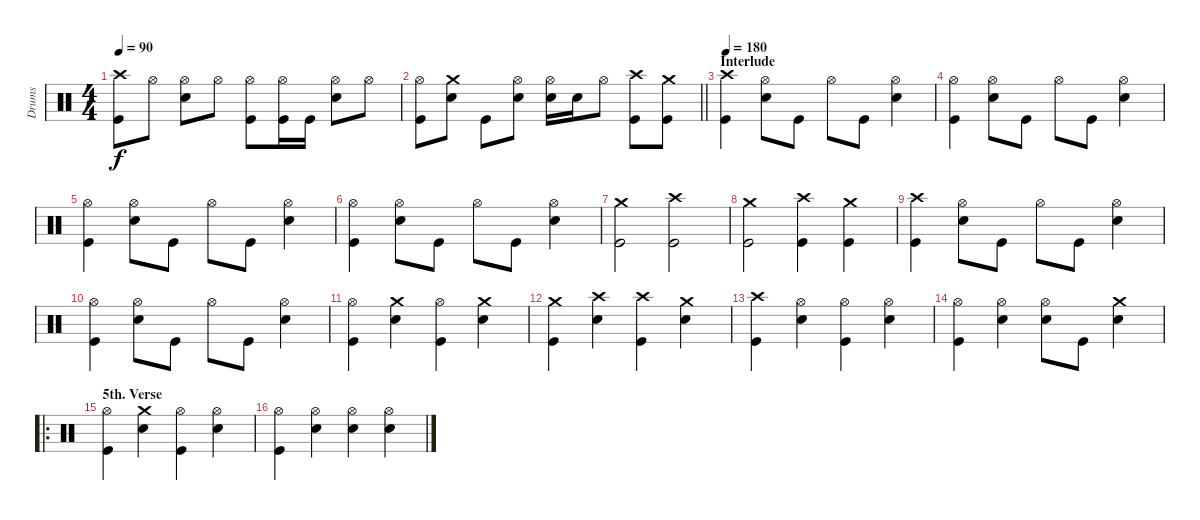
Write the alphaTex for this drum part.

\track ("Drums" "Drums") {instrument percussion}
\staff {score}
\articulation defaults
\ts (4 4)
\tempo 90
\clef neutral
\ks c
("Crash high (hit)" "Kick (hit)").8{dy f} "Hi-Hat (open)".8 ("Hi-Hat (open)" "Electric Snare (hit)").8 "Hi-Hat (open)".8 ("Hi-Hat (open)" "Kick (hit)").8 ("Hi-Hat (open)" "Kick (hit)").16 "Kick (hit)".16 ("Hi-Hat (open)" "Electric Snare (hit)").8 "Hi-Hat (open)".8 |
\barLineRight lightlight
("Hi-Hat (open)" "Kick (hit)").8 ("Crash medium (hit)" "Electric Snare (hit)").8 "Kick (hit)".8 ("Hi-Hat (open)" "Electric Snare (hit)").8 ("Hi-Hat (open)" "Electric Snare (hit)").16 "Electric Snare (hit)".16 "Hi-Hat (open)".8 ("Crash high (hit)" "Kick (hit)").8 ("Crash medium (hit)" "Kick (hit)").8 |
\section ("" "Interlude")
\tempo 180
("Crash high (hit)" "Kick (hit)").4 ("Hi-Hat (open)" "Electric Snare (hit)").8 "Kick (hit)".8 "Hi-Hat (open)".8 "Kick (hit)".8 ("Hi-Hat (open)" "Electric Snare (hit)").4 |
("Hi-Hat (open)" "Kick (hit)").4 ("Hi-Hat (open)" "Electric Snare (hit)").8 "Kick (hit)".8 "Hi-Hat (open)".8 "Kick (hit)".8 ("Hi-Hat (open)" "Electric Snare (hit)").4 |
("Hi-Hat (open)" "Kick (hit)").4 ("Hi-Hat (open)" "Electric Snare (hit)").8 "Kick (hit)".8 "Hi-Hat (open)".8 "Kick (hit)".8 ("Hi-Hat (open)" "Electric Snare (hit)").4 |
("Hi-Hat (open)" "Kick (hit)").4 ("Hi-Hat (open)" "Electric Snare (hit)").8 "Kick (hit)".8 "Hi-Hat (open)".8 "Kick (hit)".8 ("Hi-Hat (open)" "Electric Snare (hit)").4 |
("Crash medium (hit)" "Kick (hit)").2 ("Crash high (hit)" "Kick (hit)").2 |
("Crash medium (hit)" "Kick (hit)").2 ("Crash high (hit)" "Kick (hit)").4 ("Crash medium (hit)" "Kick (hit)").4 |
("Crash high (hit)" "Kick (hit)").4 ("Hi-Hat (open)" "Electric Snare (hit)").8 "Kick (hit)".8 "Hi-Hat (open)".8 "Kick (hit)".8 ("Hi-Hat (open)" "Electric Snare (hit)").4 |
("Hi-Hat (open)" "Kick (hit)").4 ("Hi-Hat (open)" "Electric Snare (hit)").8 "Kick (hit)".8 "Hi-Hat (open)".8 "Kick (hit)".8 ("Hi-Hat (open)" "Electric Snare (hit)").4 |
("Hi-Hat (open)" "Kick (hit)").4 ("Crash medium (hit)" "Electric Snare (hit)").4 ("Hi-Hat (open)" "Kick (hit)").4 ("Crash medium (hit)" "Electric Snare (hit)").4 |
("Crash medium (hit)" "Kick (hit)").4 ("Crash high (hit)" "Electric Snare (hit)").4 ("Crash high (hit)" "Kick (hit)").4 ("Crash medium (hit)" "Electric Snare (hit)").4 |
("Crash high (hit)" "Kick (hit)").4 ("Hi-Hat (open)" "Electric Snare (hit)").4 ("Hi-Hat (open)" "Kick (hit)").4 ("Hi-Hat (open)" "Electric Snare (hit)").4 |
("Hi-Hat (open)" "Kick (hit)").4 ("Hi-Hat (open)" "Electric Snare (hit)").4 ("Hi-Hat (open)" "Electric Snare (hit)").8 "Kick (hit)".8 ("Crash medium (hit)" "Electric Snare (hit)").4 |
\ro
\section ("" "5th. Verse")
("Hi-Hat (open)" "Kick (hit)").4 ("Crash medium (hit)" "Electric Snare (hit)").4 ("Hi-Hat (open)" "Kick (hit)").4 ("Hi-Hat (open)" "Electric Snare (hit)").4 |
("Hi-Hat (open)" "Kick (hit)").4 ("Hi-Hat (open)" "Electric Snare (hit)").4 ("Hi-Hat (open)" "Electric Snare (hit)").4 ("Hi-Hat (open)" "Electric Snare (hit)").4
